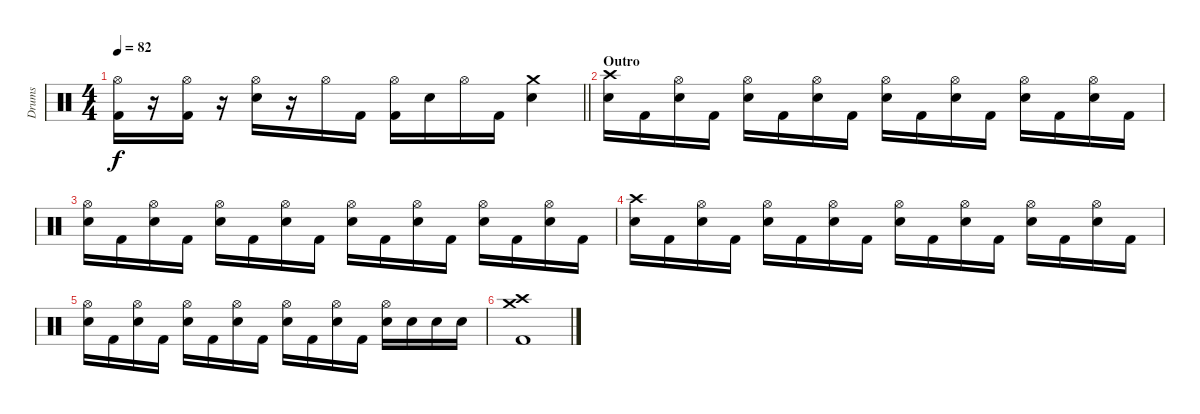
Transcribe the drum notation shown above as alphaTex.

\track ("Drums" "Drums") {instrument percussion}
\staff {score}
\articulation defaults
\ts (4 4)
\tempo 82
\clef neutral
\barLineRight lightlight
\ks c
("Hi-Hat (open)" "Kick (hit) 2").16{dy f} r.16 ("Hi-Hat (open)" "Kick (hit) 2").16 r.16 ("Hi-Hat (open)" "Electric Snare (hit)").16 r.16 "Hi-Hat (open)".16 "Kick (hit) 2".16 ("Hi-Hat (open)" "Kick (hit) 2").16 "Electric Snare (hit)".16 "Hi-Hat (open)".16 "Kick (hit) 2".16 ("Crash medium (hit)" "Electric Snare (hit)").4 |
\section ("" "Outro")
("Crash high (hit)" "Electric Snare (hit)").16 "Kick (hit) 2".16 ("Hi-Hat (open)" "Electric Snare (hit)").16 "Kick (hit) 2".16 ("Hi-Hat (open)" "Electric Snare (hit)").16 "Kick (hit) 2".16 ("Hi-Hat (open)" "Electric Snare (hit)").16 "Kick (hit) 2".16 ("Hi-Hat (open)" "Electric Snare (hit)").16 "Kick (hit) 2".16 ("Hi-Hat (open)" "Electric Snare (hit)").16 "Kick (hit) 2".16 ("Hi-Hat (open)" "Electric Snare (hit)").16 "Kick (hit) 2".16 ("Hi-Hat (open)" "Electric Snare (hit)").16 "Kick (hit) 2".16 |
("Hi-Hat (open)" "Electric Snare (hit)").16 "Kick (hit) 2".16 ("Hi-Hat (open)" "Electric Snare (hit)").16 "Kick (hit) 2".16 ("Hi-Hat (open)" "Electric Snare (hit)").16 "Kick (hit) 2".16 ("Hi-Hat (open)" "Electric Snare (hit)").16 "Kick (hit) 2".16 ("Hi-Hat (open)" "Electric Snare (hit)").16 "Kick (hit) 2".16 ("Hi-Hat (open)" "Electric Snare (hit)").16 "Kick (hit) 2".16 ("Hi-Hat (open)" "Electric Snare (hit)").16 "Kick (hit) 2".16 ("Hi-Hat (open)" "Electric Snare (hit)").16 "Kick (hit) 2".16 |
("Crash high (hit)" "Electric Snare (hit)").16 "Kick (hit) 2".16 ("Hi-Hat (open)" "Electric Snare (hit)").16 "Kick (hit) 2".16 ("Hi-Hat (open)" "Electric Snare (hit)").16 "Kick (hit) 2".16 ("Hi-Hat (open)" "Electric Snare (hit)").16 "Kick (hit) 2".16 ("Hi-Hat (open)" "Electric Snare (hit)").16 "Kick (hit) 2".16 ("Hi-Hat (open)" "Electric Snare (hit)").16 "Kick (hit) 2".16 ("Hi-Hat (open)" "Electric Snare (hit)").16 "Kick (hit) 2".16 ("Hi-Hat (open)" "Electric Snare (hit)").16 "Kick (hit) 2".16 |
("Hi-Hat (open)" "Electric Snare (hit)").16 "Kick (hit) 2".16 ("Hi-Hat (open)" "Electric Snare (hit)").16 "Kick (hit) 2".16 ("Hi-Hat (open)" "Electric Snare (hit)").16 "Kick (hit) 2".16 ("Hi-Hat (open)" "Electric Snare (hit)").16 "Kick (hit) 2".16 ("Hi-Hat (open)" "Electric Snare (hit)").16 "Kick (hit) 2".16 ("Hi-Hat (open)" "Electric Snare (hit)").16 "Kick (hit) 2".16 ("Hi-Hat (open)" "Electric Snare (hit)").16 "Electric Snare (hit)".16 "Electric Snare (hit)".16 "Electric Snare (hit)".16 |
("Crash high (hit)" "Crash medium (hit)" "Kick (hit) 2").1
